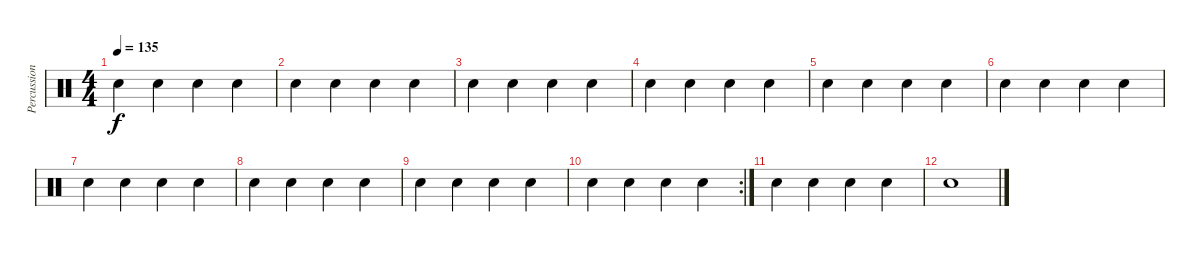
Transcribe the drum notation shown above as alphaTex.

\track ("Percussion" "Percussion") {instrument percussion}
\staff {score}
\articulation defaults
\ts (4 4)
\tempo 135
\clef neutral
\ks c "Hand Clap (hit)".4{dy f} "Hand Clap (hit)".4 "Hand Clap (hit)".4 "Hand Clap (hit)".4
|
"Hand Clap (hit)".4 "Hand Clap (hit)".4 "Hand Clap (hit)".4 "Hand Clap (hit)".4 |
"Hand Clap (hit)".4 "Hand Clap (hit)".4 "Hand Clap (hit)".4 "Hand Clap (hit)".4 |
"Hand Clap (hit)".4 "Hand Clap (hit)".4 "Hand Clap (hit)".4 "Hand Clap (hit)".4 |
"Hand Clap (hit)".4 "Hand Clap (hit)".4 "Hand Clap (hit)".4 "Hand Clap (hit)".4 |
"Hand Clap (hit)".4 "Hand Clap (hit)".4 "Hand Clap (hit)".4 "Hand Clap (hit)".4 |
"Hand Clap (hit)".4 "Hand Clap (hit)".4 "Hand Clap (hit)".4 "Hand Clap (hit)".4 |
"Hand Clap (hit)".4 "Hand Clap (hit)".4 "Hand Clap (hit)".4 "Hand Clap (hit)".4 |
"Hand Clap (hit)".4 "Hand Clap (hit)".4 "Hand Clap (hit)".4 "Hand Clap (hit)".4 |
\rc 2 "Hand Clap (hit)".4 "Hand Clap (hit)".4 "Hand Clap (hit)".4 "Hand Clap (hit)".4
|
"Hand Clap (hit)".4 "Hand Clap (hit)".4 "Hand Clap (hit)".4 "Hand Clap (hit)".4 |
"Hand Clap (hit)".1
